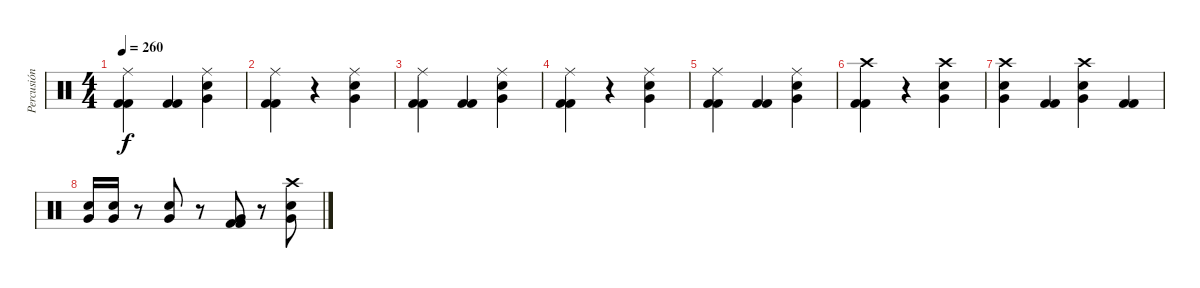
\track ("Percusión" "Percusión") {instrument percussion}
\staff {score}
\articulation defaults
\ts (4 4)
\tempo 260
\clef neutral
\ks c
("Kick (hit) 2" "Kick (hit) 2" "Ride (middle)").4{dy f} ("Kick (hit) 2" "Kick (hit) 2").4 ("Electric Snare (hit)" "Very Low Tom (hit)" "Ride (middle)").4 |
("Kick (hit) 2" "Kick (hit) 2" "Ride (middle)").4 r.4 ("Electric Snare (hit)" "Very Low Tom (hit)" "Ride (middle)").4 |
("Kick (hit) 2" "Kick (hit) 2" "Ride (middle)").4 ("Kick (hit) 2" "Kick (hit) 2").4 ("Electric Snare (hit)" "Very Low Tom (hit)" "Ride (middle)").4 |
("Kick (hit) 2" "Kick (hit) 2" "Ride (middle)").4 r.4 ("Electric Snare (hit)" "Very Low Tom (hit)" "Ride (middle)").4 |
("Kick (hit) 2" "Kick (hit) 2" "Ride (middle)").4 ("Kick (hit) 2" "Kick (hit) 2").4 ("Electric Snare (hit)" "Very Low Tom (hit)" "Ride (middle)").4 |
("Kick (hit) 2" "Kick (hit) 2" "Crash high (hit)").4 r.4 ("Very Low Tom (hit)" "Electric Snare (hit)" "Crash high (hit)").4 |
("Very Low Tom (hit)" "Electric Snare (hit)" "Crash high (hit)").4 ("Kick (hit) 2" "Kick (hit) 2").4 ("Very Low Tom (hit)" "Electric Snare (hit)" "Crash high (hit)").4 ("Kick (hit) 2" "Kick (hit) 2").4 |
("Electric Snare (hit)" "Very Low Tom (hit)").16 ("Electric Snare (hit)" "Very Low Tom (hit)").16 r.8 ("Electric Snare (hit)" "Very Low Tom (hit)").8 r.8 ("Very Low Tom (hit)" "Kick (hit) 2" "Kick (hit) 2").8 r.8 ("Electric Snare (hit)" "Very Low Tom (hit)" "Crash high (hit)").8
